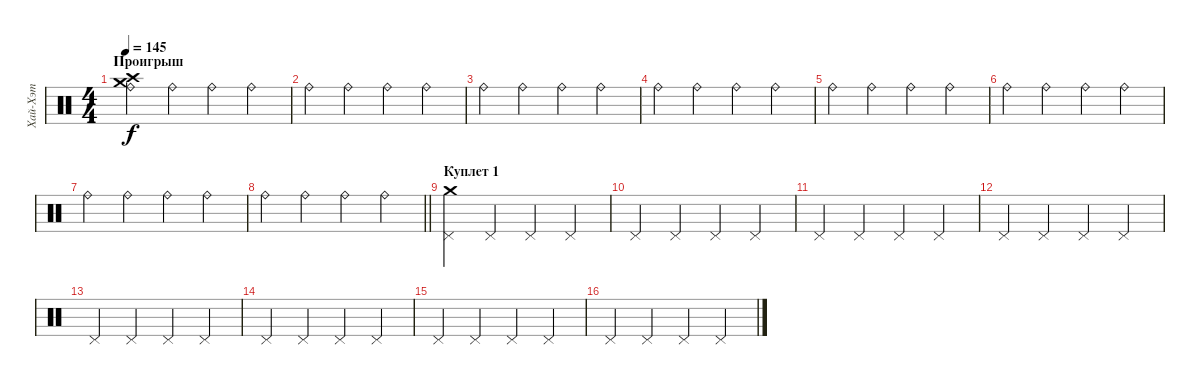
\track ("Хай-Хэт" "Хай-Хэт") {instrument percussion}
\staff {score}
\articulation defaults
\ts (4 4)
\section ("" "Проигрыш")
\tempo 145
\clef neutral
\ks c
("Ride (bell)" "Crash high (hit)" "Crash medium (hit)").4{dy f} "Ride (bell)".4 "Ride (bell)".4 "Ride (bell)".4 |
"Ride (bell)".4 "Ride (bell)".4 "Ride (bell)".4 "Ride (bell)".4 |
"Ride (bell)".4 "Ride (bell)".4 "Ride (bell)".4 "Ride (bell)".4 |
"Ride (bell)".4 "Ride (bell)".4 "Ride (bell)".4 "Ride (bell)".4 |
"Ride (bell)".4 "Ride (bell)".4 "Ride (bell)".4 "Ride (bell)".4 |
"Ride (bell)".4 "Ride (bell)".4 "Ride (bell)".4 "Ride (bell)".4 |
"Ride (bell)".4 "Ride (bell)".4 "Ride (bell)".4 "Ride (bell)".4 |
\barLineRight lightlight "Ride (bell)".4 "Ride (bell)".4 "Ride (bell)".4 "Ride (bell)".4
|
\section ("" "Куплет 1")
("Crash medium (hit)" "Pedal Hi-Hat (hit)").4 "Pedal Hi-Hat (hit)".4 "Pedal Hi-Hat (hit)".4 "Pedal Hi-Hat (hit)".4 |
"Pedal Hi-Hat (hit)".4 "Pedal Hi-Hat (hit)".4 "Pedal Hi-Hat (hit)".4 "Pedal Hi-Hat (hit)".4 |
"Pedal Hi-Hat (hit)".4 "Pedal Hi-Hat (hit)".4 "Pedal Hi-Hat (hit)".4 "Pedal Hi-Hat (hit)".4 |
"Pedal Hi-Hat (hit)".4 "Pedal Hi-Hat (hit)".4 "Pedal Hi-Hat (hit)".4 "Pedal Hi-Hat (hit)".4 |
"Pedal Hi-Hat (hit)".4 "Pedal Hi-Hat (hit)".4 "Pedal Hi-Hat (hit)".4 "Pedal Hi-Hat (hit)".4 |
"Pedal Hi-Hat (hit)".4 "Pedal Hi-Hat (hit)".4 "Pedal Hi-Hat (hit)".4 "Pedal Hi-Hat (hit)".4 |
"Pedal Hi-Hat (hit)".4 "Pedal Hi-Hat (hit)".4 "Pedal Hi-Hat (hit)".4 "Pedal Hi-Hat (hit)".4 |
"Pedal Hi-Hat (hit)".4 "Pedal Hi-Hat (hit)".4 "Pedal Hi-Hat (hit)".4 "Pedal Hi-Hat (hit)".4
